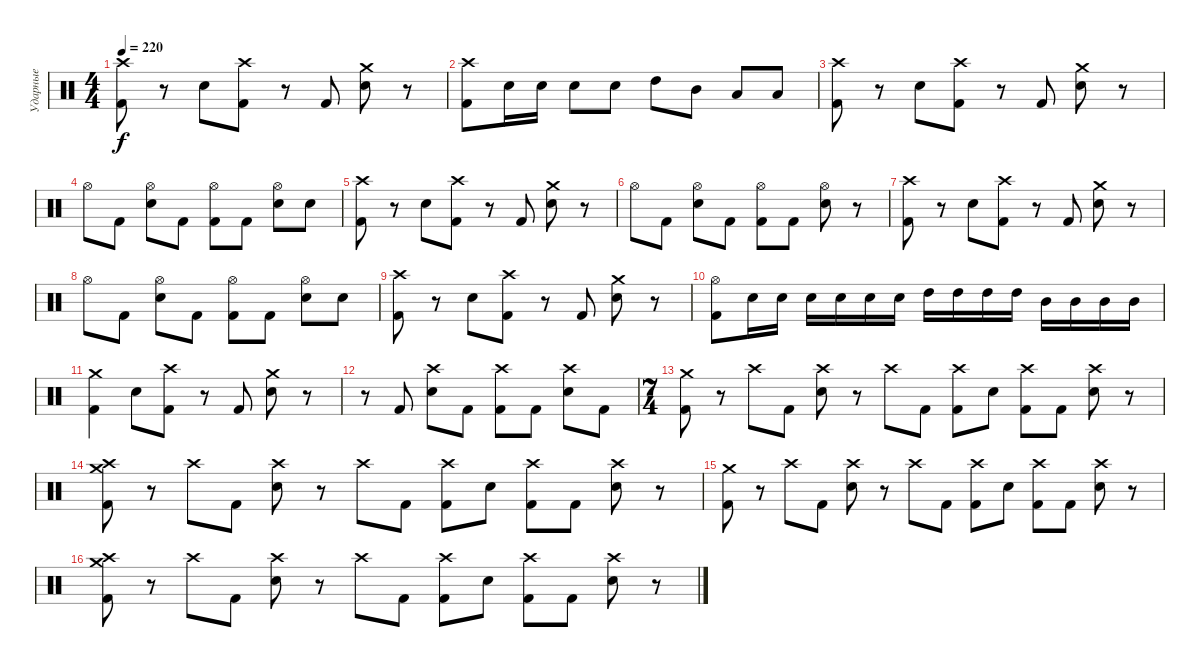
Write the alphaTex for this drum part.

\track ("Ударные" "Ударные") {instrument percussion}
\staff {score}
\articulation defaults
\ts (4 4)
\tempo 220
\clef neutral
\ks c
("Crash high (hit)" "Kick (hit) 2").8{dy f} r.8 "Electric Snare (hit)".8 ("Crash high (hit)" "Kick (hit) 2").8 r.8 "Kick (hit) 2".8 ("Crash medium (hit)" "Electric Snare (hit)").8 r.8 |
("Crash high (hit)" "Kick (hit) 2").8 "Electric Snare (hit)".16 "Electric Snare (hit)".16 "Electric Snare (hit)".8 "Electric Snare (hit)".8 "High Tom (hit)".8 "Mid Tom (hit)".8 "Low Floor Tom (hit)".8 "Low Floor Tom (hit)".8 |
("Crash high (hit)" "Kick (hit) 2").8 r.8 "Electric Snare (hit)".8 ("Crash high (hit)" "Kick (hit) 2").8 r.8 "Kick (hit) 2".8 ("Crash medium (hit)" "Electric Snare (hit)").8 r.8 |
"Hi-Hat (open)".8 "Kick (hit) 2".8 ("Hi-Hat (open)" "Electric Snare (hit)").8 "Kick (hit) 2".8 ("Hi-Hat (open)" "Kick (hit) 2").8 "Kick (hit) 2".8 ("Hi-Hat (open)" "Electric Snare (hit)").8 "Electric Snare (hit)".8 |
("Crash high (hit)" "Kick (hit) 2").8 r.8 "Electric Snare (hit)".8 ("Crash high (hit)" "Kick (hit) 2").8 r.8 "Kick (hit) 2".8 ("Crash medium (hit)" "Electric Snare (hit)").8 r.8 |
"Hi-Hat (open)".8 "Kick (hit) 2".8 ("Hi-Hat (open)" "Electric Snare (hit)").8 "Kick (hit) 2".8 ("Hi-Hat (open)" "Kick (hit) 2").8 "Kick (hit) 2".8 ("Hi-Hat (open)" "Electric Snare (hit)").8 r.8 |
("Crash high (hit)" "Kick (hit) 2").8 r.8 "Electric Snare (hit)".8 ("Crash high (hit)" "Kick (hit) 2").8 r.8 "Kick (hit) 2".8 ("Crash medium (hit)" "Electric Snare (hit)").8 r.8 |
"Hi-Hat (open)".8 "Kick (hit) 2".8 ("Hi-Hat (open)" "Electric Snare (hit)").8 "Kick (hit) 2".8 ("Hi-Hat (open)" "Kick (hit) 2").8 "Kick (hit) 2".8 ("Hi-Hat (open)" "Electric Snare (hit)").8 "Electric Snare (hit)".8 |
("Crash high (hit)" "Kick (hit) 2").8 r.8 "Electric Snare (hit)".8 ("Crash high (hit)" "Kick (hit) 2").8 r.8 "Kick (hit) 2".8 ("Crash medium (hit)" "Electric Snare (hit)").8 r.8 |
("Hi-Hat (open)" "Kick (hit) 2").8 "Electric Snare (hit)".16 "Electric Snare (hit)".16 "Electric Snare (hit)".16 "Electric Snare (hit)".16 "Electric Snare (hit)".16 "Electric Snare (hit)".16 "High Tom (hit)".16 "High Tom (hit)".16 "High Tom (hit)".16 "High Tom (hit)".16 "Mid Tom (hit)".16 "Mid Tom (hit)".16 "Mid Tom (hit)".16 "Mid Tom (hit)".16 |
("Crash medium (hit)" "Kick (hit) 2").4 "Electric Snare (hit)".8 ("Crash high (hit)" "Kick (hit) 2").8 r.8 "Kick (hit) 2".8 ("Crash medium (hit)" "Electric Snare (hit)").8 r.8 |
r.8 "Kick (hit) 2".8 ("Crash high (hit)" "Electric Snare (hit)").8 "Kick (hit) 2".8 ("Crash high (hit)" "Kick (hit) 2").8 "Kick (hit) 2".8 ("Crash high (hit)" "Electric Snare (hit)").8 "Kick (hit) 2".8 |
\ts (7 4)
("Crash medium (hit)" "Kick (hit) 2").8 r.8 "Crash high (hit)".8 "Kick (hit) 2".8 ("Crash high (hit)" "Electric Snare (hit)").8 r.8 "Crash high (hit)".8 "Kick (hit) 2".8 ("Crash high (hit)" "Kick (hit) 2").8 "Electric Snare (hit)".8 ("Crash high (hit)" "Kick (hit) 2").8 "Kick (hit) 2".8 ("Crash high (hit)" "Electric Snare (hit)").8 r.8 |
("Crash medium (hit)" "Crash high (hit)" "Kick (hit) 2").8 r.8 "Crash high (hit)".8 "Kick (hit) 2".8 ("Crash high (hit)" "Electric Snare (hit)").8 r.8 "Crash high (hit)".8 "Kick (hit) 2".8 ("Crash high (hit)" "Kick (hit) 2").8 "Electric Snare (hit)".8 ("Crash high (hit)" "Kick (hit) 2").8 "Kick (hit) 2".8 ("Crash high (hit)" "Electric Snare (hit)").8 r.8 |
("Crash medium (hit)" "Kick (hit) 2").8 r.8 "Crash high (hit)".8 "Kick (hit) 2".8 ("Crash high (hit)" "Electric Snare (hit)").8 r.8 "Crash high (hit)".8 "Kick (hit) 2".8 ("Crash high (hit)" "Kick (hit) 2").8 "Electric Snare (hit)".8 ("Crash high (hit)" "Kick (hit) 2").8 "Kick (hit) 2".8 ("Crash high (hit)" "Electric Snare (hit)").8 r.8 |
("Crash medium (hit)" "Crash high (hit)" "Kick (hit) 2").8 r.8 "Crash high (hit)".8 "Kick (hit) 2".8 ("Crash high (hit)" "Electric Snare (hit)").8 r.8 "Crash high (hit)".8 "Kick (hit) 2".8 ("Crash high (hit)" "Kick (hit) 2").8 "Electric Snare (hit)".8 ("Crash high (hit)" "Kick (hit) 2").8 "Kick (hit) 2".8 ("Crash high (hit)" "Electric Snare (hit)").8 r.8
